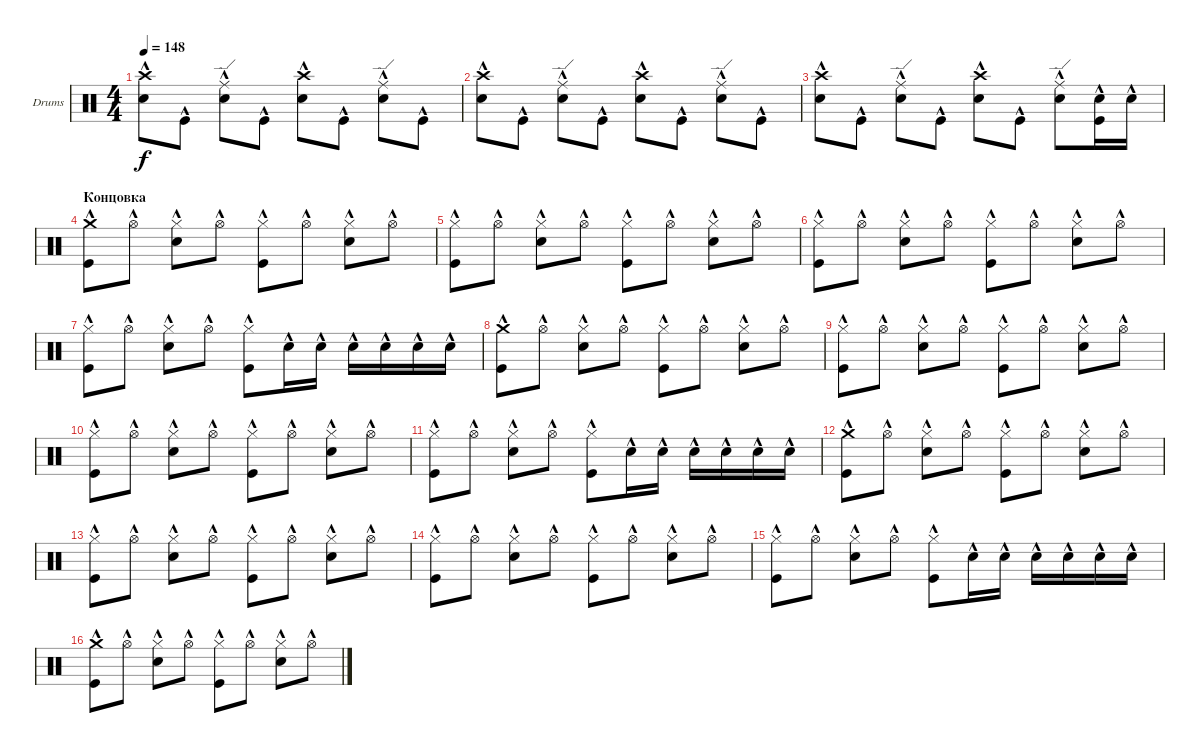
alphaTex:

\bracketExtendMode groupsimilarinstruments
\firstSystemTrackNameOrientation horizontal
\otherSystemsTrackNameOrientation horizontal
\track ("Drumkit" "Drums") {instrument percussion}
\staff {score}
\articulation defaults
\ts (4 4)
\tempo 148
\clef neutral
\ks c
("Snare (hit) 2"{hac} "Crash high (hit)"{hac}).8{dy f} "Kick (hit)"{hac}.8 ("Snare (hit) 2"{hac} "Ride (edge)"{hac}).8 "Kick (hit)"{hac}.8 ("Snare (hit) 2"{hac} "Crash high (hit)"{hac}).8 "Kick (hit)"{hac}.8 ("Snare (hit) 2"{hac} "Ride (edge)"{hac}).8 "Kick (hit)"{hac}.8 |
("Snare (hit) 2"{hac} "Crash high (hit)"{hac}).8 "Kick (hit)"{hac}.8 ("Snare (hit) 2"{hac} "Ride (edge)"{hac}).8 "Kick (hit)"{hac}.8 ("Snare (hit) 2"{hac} "Crash high (hit)"{hac}).8 "Kick (hit)"{hac}.8 ("Snare (hit) 2"{hac} "Ride (edge)"{hac}).8 "Kick (hit)"{hac}.8 |
("Snare (hit) 2"{hac} "Crash high (hit)"{hac}).8 "Kick (hit)"{hac}.8 ("Snare (hit) 2"{hac} "Ride (edge)"{hac}).8 "Kick (hit)"{hac}.8 ("Snare (hit) 2"{hac} "Crash high (hit)"{hac}).8 "Kick (hit)"{hac}.8 ("Snare (hit) 2"{hac} "Ride (edge)"{hac}).8 ("Kick (hit)"{hac} "Snare (hit) 2"{hac}).16 "Snare (hit) 2"{hac}.16 |
\section ("" "Концовка")
("Kick (hit)"{hac} "Crash medium (hit)"{hac}).8 "Hi-Hat (open)"{hac}.8 ("Snare (hit) 2"{hac} "Hi-Hat (closed)"{hac}).8 "Hi-Hat (open)"{hac}.8 ("Kick (hit)"{hac} "Hi-Hat (closed)"{hac}).8 "Hi-Hat (open)"{hac}.8 ("Snare (hit) 2"{hac} "Hi-Hat (closed)"{hac}).8 "Hi-Hat (open)"{hac}.8 |
("Kick (hit)"{hac} "Hi-Hat (closed)"{hac}).8 "Hi-Hat (open)"{hac}.8 ("Snare (hit) 2"{hac} "Hi-Hat (closed)"{hac}).8 "Hi-Hat (open)"{hac}.8 ("Kick (hit)"{hac} "Hi-Hat (closed)"{hac}).8 "Hi-Hat (open)"{hac}.8 ("Snare (hit) 2"{hac} "Hi-Hat (closed)"{hac}).8 "Hi-Hat (open)"{hac}.8 |
("Kick (hit)"{hac} "Hi-Hat (closed)"{hac}).8 "Hi-Hat (open)"{hac}.8 ("Snare (hit) 2"{hac} "Hi-Hat (closed)"{hac}).8 "Hi-Hat (open)"{hac}.8 ("Kick (hit)"{hac} "Hi-Hat (closed)"{hac}).8 "Hi-Hat (open)"{hac}.8 ("Snare (hit) 2"{hac} "Hi-Hat (closed)"{hac}).8 "Hi-Hat (open)"{hac}.8 |
("Kick (hit)"{hac} "Hi-Hat (closed)"{hac}).8 "Hi-Hat (open)"{hac}.8 ("Snare (hit) 2"{hac} "Hi-Hat (closed)"{hac}).8 "Hi-Hat (open)"{hac}.8 ("Kick (hit)"{hac} "Hi-Hat (closed)"{hac}).8 "Snare (hit) 2"{hac}.16 "Snare (hit) 2"{hac}.16 "Snare (hit) 2"{hac}.16 "Snare (hit) 2"{hac}.16 "Snare (hit) 2"{hac}.16 "Snare (hit) 2"{hac}.16 |
("Kick (hit)"{hac} "Crash medium (hit)"{hac}).8 "Hi-Hat (open)"{hac}.8 ("Snare (hit) 2"{hac} "Hi-Hat (closed)"{hac}).8 "Hi-Hat (open)"{hac}.8 ("Kick (hit)"{hac} "Hi-Hat (closed)"{hac}).8 "Hi-Hat (open)"{hac}.8 ("Snare (hit) 2"{hac} "Hi-Hat (closed)"{hac}).8 "Hi-Hat (open)"{hac}.8 |
("Kick (hit)"{hac} "Hi-Hat (closed)"{hac}).8 "Hi-Hat (open)"{hac}.8 ("Snare (hit) 2"{hac} "Hi-Hat (closed)"{hac}).8 "Hi-Hat (open)"{hac}.8 ("Kick (hit)"{hac} "Hi-Hat (closed)"{hac}).8 "Hi-Hat (open)"{hac}.8 ("Snare (hit) 2"{hac} "Hi-Hat (closed)"{hac}).8 "Hi-Hat (open)"{hac}.8 |
("Kick (hit)"{hac} "Hi-Hat (closed)"{hac}).8 "Hi-Hat (open)"{hac}.8 ("Snare (hit) 2"{hac} "Hi-Hat (closed)"{hac}).8 "Hi-Hat (open)"{hac}.8 ("Kick (hit)"{hac} "Hi-Hat (closed)"{hac}).8 "Hi-Hat (open)"{hac}.8 ("Snare (hit) 2"{hac} "Hi-Hat (closed)"{hac}).8 "Hi-Hat (open)"{hac}.8 |
("Kick (hit)"{hac} "Hi-Hat (closed)"{hac}).8 "Hi-Hat (open)"{hac}.8 ("Snare (hit) 2"{hac} "Hi-Hat (closed)"{hac}).8 "Hi-Hat (open)"{hac}.8 ("Kick (hit)"{hac} "Hi-Hat (closed)"{hac}).8 "Snare (hit) 2"{hac}.16 "Snare (hit) 2"{hac}.16 "Snare (hit) 2"{hac}.16 "Snare (hit) 2"{hac}.16 "Snare (hit) 2"{hac}.16 "Snare (hit) 2"{hac}.16 |
("Kick (hit)"{hac} "Crash medium (hit)"{hac}).8 "Hi-Hat (open)"{hac}.8 ("Snare (hit) 2"{hac} "Hi-Hat (closed)"{hac}).8 "Hi-Hat (open)"{hac}.8 ("Kick (hit)"{hac} "Hi-Hat (closed)"{hac}).8 "Hi-Hat (open)"{hac}.8 ("Snare (hit) 2"{hac} "Hi-Hat (closed)"{hac}).8 "Hi-Hat (open)"{hac}.8 |
("Kick (hit)"{hac} "Hi-Hat (closed)"{hac}).8 "Hi-Hat (open)"{hac}.8 ("Snare (hit) 2"{hac} "Hi-Hat (closed)"{hac}).8 "Hi-Hat (open)"{hac}.8 ("Kick (hit)"{hac} "Hi-Hat (closed)"{hac}).8 "Hi-Hat (open)"{hac}.8 ("Snare (hit) 2"{hac} "Hi-Hat (closed)"{hac}).8 "Hi-Hat (open)"{hac}.8 |
("Kick (hit)"{hac} "Hi-Hat (closed)"{hac}).8 "Hi-Hat (open)"{hac}.8 ("Snare (hit) 2"{hac} "Hi-Hat (closed)"{hac}).8 "Hi-Hat (open)"{hac}.8 ("Kick (hit)"{hac} "Hi-Hat (closed)"{hac}).8 "Hi-Hat (open)"{hac}.8 ("Snare (hit) 2"{hac} "Hi-Hat (closed)"{hac}).8 "Hi-Hat (open)"{hac}.8 |
("Kick (hit)"{hac} "Hi-Hat (closed)"{hac}).8 "Hi-Hat (open)"{hac}.8 ("Snare (hit) 2"{hac} "Hi-Hat (closed)"{hac}).8 "Hi-Hat (open)"{hac}.8 ("Kick (hit)"{hac} "Hi-Hat (closed)"{hac}).8 "Snare (hit) 2"{hac}.16 "Snare (hit) 2"{hac}.16 "Snare (hit) 2"{hac}.16 "Snare (hit) 2"{hac}.16 "Snare (hit) 2"{hac}.16 "Snare (hit) 2"{hac}.16 |
("Kick (hit)"{hac} "Crash medium (hit)"{hac}).8 "Hi-Hat (open)"{hac}.8 ("Snare (hit) 2"{hac} "Hi-Hat (closed)"{hac}).8 "Hi-Hat (open)"{hac}.8 ("Kick (hit)"{hac} "Hi-Hat (closed)"{hac}).8 "Hi-Hat (open)"{hac}.8 ("Snare (hit) 2"{hac} "Hi-Hat (closed)"{hac}).8 "Hi-Hat (open)"{hac}.8
